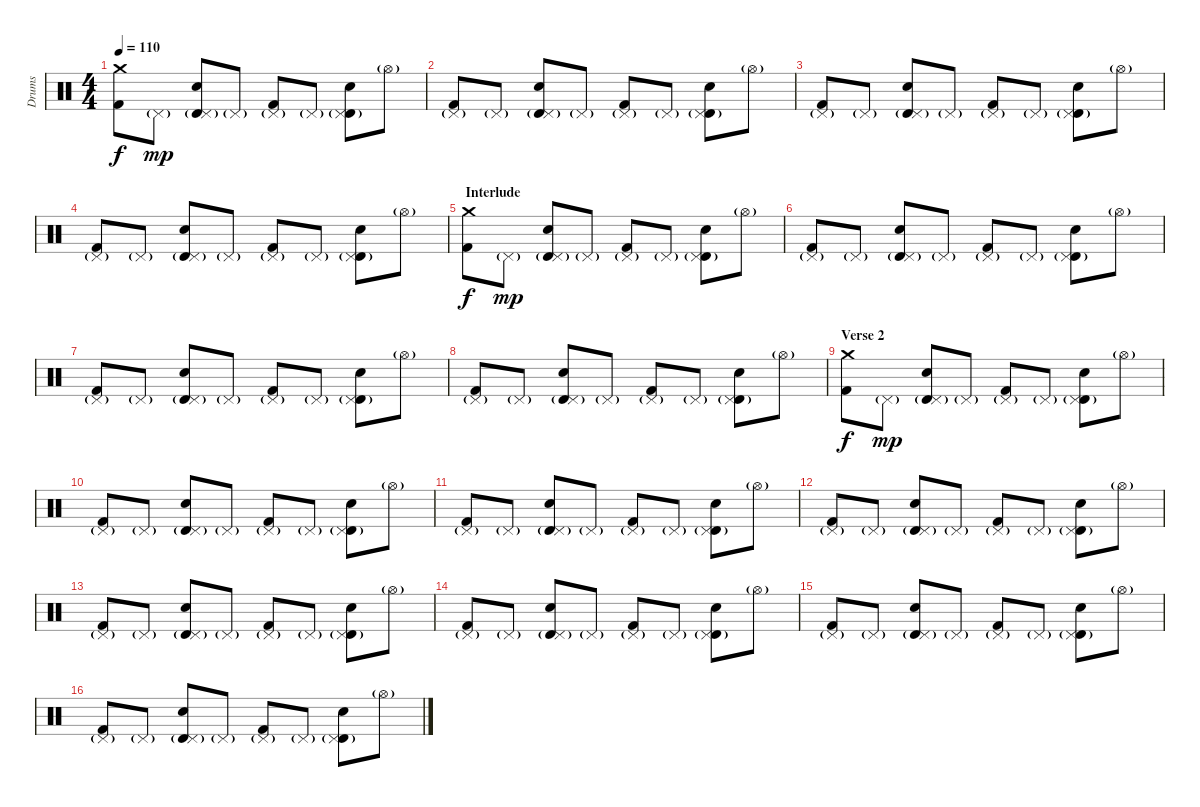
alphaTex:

\track ("Drums" "Drums") {instrument percussion}
\staff {score}
\articulation defaults
\ts (4 4)
\tempo 110
\clef neutral
\ks c
("Kick (hit) 2" "Crash medium (hit)").8{dy f} "Pedal Hi-Hat (hit)"{g}.8{dy mp} ("Timbale high (hit)" "Electric Snare (hit)" "Pedal Hi-Hat (hit)"{g}).8 "Pedal Hi-Hat (hit)"{g}.8 ("Kick (hit) 2" "Pedal Hi-Hat (hit)"{g}).8 "Pedal Hi-Hat (hit)"{g}.8 ("Timbale high (hit)" "Electric Snare (hit)" "Pedal Hi-Hat (hit)"{g}).8 "Hi-Hat (open)"{g}.8 |
("Kick (hit) 2" "Pedal Hi-Hat (hit)"{g}).8 "Pedal Hi-Hat (hit)"{g}.8 ("Timbale high (hit)" "Electric Snare (hit)" "Pedal Hi-Hat (hit)"{g}).8 "Pedal Hi-Hat (hit)"{g}.8 ("Kick (hit) 2" "Pedal Hi-Hat (hit)"{g}).8 "Pedal Hi-Hat (hit)"{g}.8 ("Timbale high (hit)" "Electric Snare (hit)" "Pedal Hi-Hat (hit)"{g}).8 "Hi-Hat (open)"{g}.8 |
("Kick (hit) 2" "Pedal Hi-Hat (hit)"{g}).8 "Pedal Hi-Hat (hit)"{g}.8 ("Timbale high (hit)" "Electric Snare (hit)" "Pedal Hi-Hat (hit)"{g}).8 "Pedal Hi-Hat (hit)"{g}.8 ("Kick (hit) 2" "Pedal Hi-Hat (hit)"{g}).8 "Pedal Hi-Hat (hit)"{g}.8 ("Timbale high (hit)" "Electric Snare (hit)" "Pedal Hi-Hat (hit)"{g}).8 "Hi-Hat (open)"{g}.8 |
("Kick (hit) 2" "Pedal Hi-Hat (hit)"{g}).8 "Pedal Hi-Hat (hit)"{g}.8 ("Timbale high (hit)" "Electric Snare (hit)" "Pedal Hi-Hat (hit)"{g}).8 "Pedal Hi-Hat (hit)"{g}.8 ("Kick (hit) 2" "Pedal Hi-Hat (hit)"{g}).8 "Pedal Hi-Hat (hit)"{g}.8 ("Timbale high (hit)" "Electric Snare (hit)" "Pedal Hi-Hat (hit)"{g}).8 "Hi-Hat (open)"{g}.8 |
\section ("" " Interlude")
("Kick (hit) 2" "Crash medium (hit)").8{dy f} "Pedal Hi-Hat (hit)"{g}.8{dy mp} ("Timbale high (hit)" "Electric Snare (hit)" "Pedal Hi-Hat (hit)"{g}).8 "Pedal Hi-Hat (hit)"{g}.8 ("Kick (hit) 2" "Pedal Hi-Hat (hit)"{g}).8 "Pedal Hi-Hat (hit)"{g}.8 ("Timbale high (hit)" "Electric Snare (hit)" "Pedal Hi-Hat (hit)"{g}).8 "Hi-Hat (open)"{g}.8 |
("Kick (hit) 2" "Pedal Hi-Hat (hit)"{g}).8 "Pedal Hi-Hat (hit)"{g}.8 ("Timbale high (hit)" "Electric Snare (hit)" "Pedal Hi-Hat (hit)"{g}).8 "Pedal Hi-Hat (hit)"{g}.8 ("Kick (hit) 2" "Pedal Hi-Hat (hit)"{g}).8 "Pedal Hi-Hat (hit)"{g}.8 ("Timbale high (hit)" "Electric Snare (hit)" "Pedal Hi-Hat (hit)"{g}).8 "Hi-Hat (open)"{g}.8 |
("Kick (hit) 2" "Pedal Hi-Hat (hit)"{g}).8 "Pedal Hi-Hat (hit)"{g}.8 ("Timbale high (hit)" "Electric Snare (hit)" "Pedal Hi-Hat (hit)"{g}).8 "Pedal Hi-Hat (hit)"{g}.8 ("Kick (hit) 2" "Pedal Hi-Hat (hit)"{g}).8 "Pedal Hi-Hat (hit)"{g}.8 ("Timbale high (hit)" "Electric Snare (hit)" "Pedal Hi-Hat (hit)"{g}).8 "Hi-Hat (open)"{g}.8 |
("Kick (hit) 2" "Pedal Hi-Hat (hit)"{g}).8 "Pedal Hi-Hat (hit)"{g}.8 ("Timbale high (hit)" "Electric Snare (hit)" "Pedal Hi-Hat (hit)"{g}).8 "Pedal Hi-Hat (hit)"{g}.8 ("Kick (hit) 2" "Pedal Hi-Hat (hit)"{g}).8 "Pedal Hi-Hat (hit)"{g}.8 ("Timbale high (hit)" "Electric Snare (hit)" "Pedal Hi-Hat (hit)"{g}).8 "Hi-Hat (open)"{g}.8 |
\section ("" "Verse 2")
("Kick (hit) 2" "Crash medium (hit)").8{dy f} "Pedal Hi-Hat (hit)"{g}.8{dy mp} ("Timbale high (hit)" "Electric Snare (hit)" "Pedal Hi-Hat (hit)"{g}).8 "Pedal Hi-Hat (hit)"{g}.8 ("Kick (hit) 2" "Pedal Hi-Hat (hit)"{g}).8 "Pedal Hi-Hat (hit)"{g}.8 ("Timbale high (hit)" "Electric Snare (hit)" "Pedal Hi-Hat (hit)"{g}).8 "Hi-Hat (open)"{g}.8 |
("Kick (hit) 2" "Pedal Hi-Hat (hit)"{g}).8 "Pedal Hi-Hat (hit)"{g}.8 ("Timbale high (hit)" "Electric Snare (hit)" "Pedal Hi-Hat (hit)"{g}).8 "Pedal Hi-Hat (hit)"{g}.8 ("Kick (hit) 2" "Pedal Hi-Hat (hit)"{g}).8 "Pedal Hi-Hat (hit)"{g}.8 ("Timbale high (hit)" "Electric Snare (hit)" "Pedal Hi-Hat (hit)"{g}).8 "Hi-Hat (open)"{g}.8 |
("Kick (hit) 2" "Pedal Hi-Hat (hit)"{g}).8 "Pedal Hi-Hat (hit)"{g}.8 ("Timbale high (hit)" "Electric Snare (hit)" "Pedal Hi-Hat (hit)"{g}).8 "Pedal Hi-Hat (hit)"{g}.8 ("Kick (hit) 2" "Pedal Hi-Hat (hit)"{g}).8 "Pedal Hi-Hat (hit)"{g}.8 ("Timbale high (hit)" "Electric Snare (hit)" "Pedal Hi-Hat (hit)"{g}).8 "Hi-Hat (open)"{g}.8 |
("Kick (hit) 2" "Pedal Hi-Hat (hit)"{g}).8 "Pedal Hi-Hat (hit)"{g}.8 ("Timbale high (hit)" "Electric Snare (hit)" "Pedal Hi-Hat (hit)"{g}).8 "Pedal Hi-Hat (hit)"{g}.8 ("Kick (hit) 2" "Pedal Hi-Hat (hit)"{g}).8 "Pedal Hi-Hat (hit)"{g}.8 ("Timbale high (hit)" "Electric Snare (hit)" "Pedal Hi-Hat (hit)"{g}).8 "Hi-Hat (open)"{g}.8 |
("Kick (hit) 2" "Pedal Hi-Hat (hit)"{g}).8 "Pedal Hi-Hat (hit)"{g}.8 ("Timbale high (hit)" "Electric Snare (hit)" "Pedal Hi-Hat (hit)"{g}).8 "Pedal Hi-Hat (hit)"{g}.8 ("Kick (hit) 2" "Pedal Hi-Hat (hit)"{g}).8 "Pedal Hi-Hat (hit)"{g}.8 ("Timbale high (hit)" "Electric Snare (hit)" "Pedal Hi-Hat (hit)"{g}).8 "Hi-Hat (open)"{g}.8 |
("Kick (hit) 2" "Pedal Hi-Hat (hit)"{g}).8 "Pedal Hi-Hat (hit)"{g}.8 ("Timbale high (hit)" "Electric Snare (hit)" "Pedal Hi-Hat (hit)"{g}).8 "Pedal Hi-Hat (hit)"{g}.8 ("Kick (hit) 2" "Pedal Hi-Hat (hit)"{g}).8 "Pedal Hi-Hat (hit)"{g}.8 ("Timbale high (hit)" "Electric Snare (hit)" "Pedal Hi-Hat (hit)"{g}).8 "Hi-Hat (open)"{g}.8 |
("Kick (hit) 2" "Pedal Hi-Hat (hit)"{g}).8 "Pedal Hi-Hat (hit)"{g}.8 ("Timbale high (hit)" "Electric Snare (hit)" "Pedal Hi-Hat (hit)"{g}).8 "Pedal Hi-Hat (hit)"{g}.8 ("Kick (hit) 2" "Pedal Hi-Hat (hit)"{g}).8 "Pedal Hi-Hat (hit)"{g}.8 ("Timbale high (hit)" "Electric Snare (hit)" "Pedal Hi-Hat (hit)"{g}).8 "Hi-Hat (open)"{g}.8 |
("Kick (hit) 2" "Pedal Hi-Hat (hit)"{g}).8 "Pedal Hi-Hat (hit)"{g}.8 ("Timbale high (hit)" "Electric Snare (hit)" "Pedal Hi-Hat (hit)"{g}).8 "Pedal Hi-Hat (hit)"{g}.8 ("Kick (hit) 2" "Pedal Hi-Hat (hit)"{g}).8 "Pedal Hi-Hat (hit)"{g}.8 ("Timbale high (hit)" "Electric Snare (hit)" "Pedal Hi-Hat (hit)"{g}).8 "Hi-Hat (open)"{g}.8
